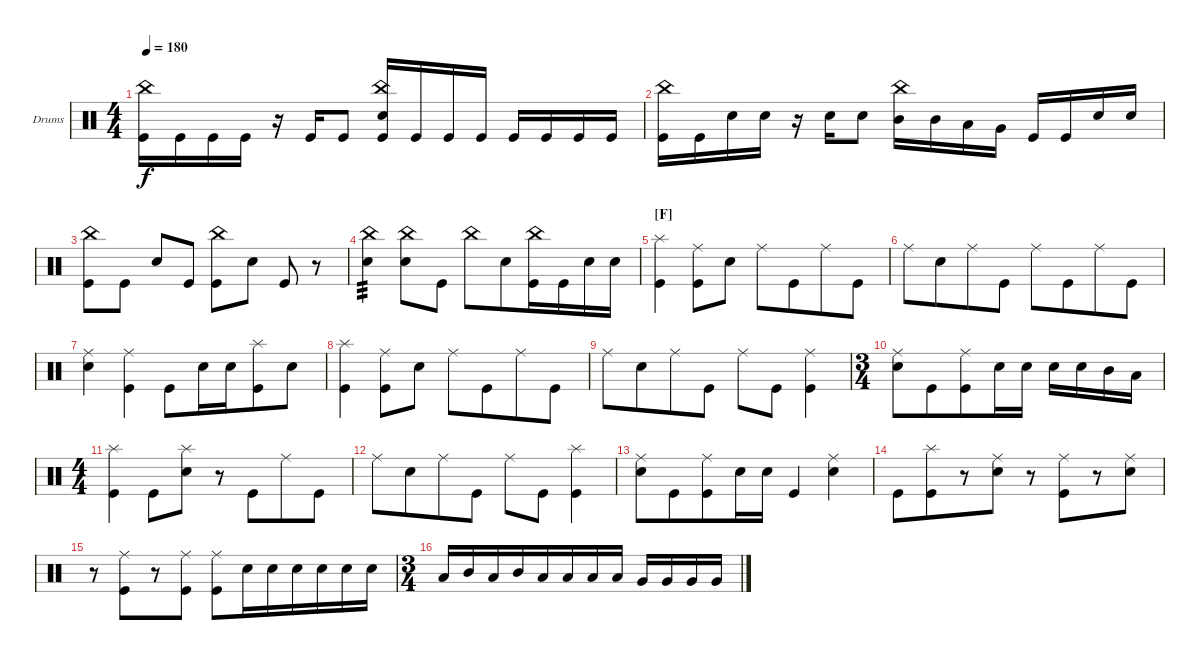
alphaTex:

\defaultSystemsLayout 4
\bracketExtendMode groupsimilarinstruments
\firstSystemTrackNameOrientation horizontal
\otherSystemsTrackNameOrientation horizontal
\track ("Drumkit" "Drums") {instrument percussion}
\staff {score}
\articulation defaults
\ts (4 4)
\tempo 180
\clef neutral
\ks c
("Kick (hit)" "China (hit)").16{dy f} "Kick (hit)".16 "Kick (hit)".16 "Kick (hit)".16 r.16 "Kick (hit)".16 "Kick (hit)".8 ("Kick (hit)" "China (hit)" "Snare (hit) 2").16 "Kick (hit)".16 "Kick (hit)".16 "Kick (hit)".16 "Kick (hit)".16 "Kick (hit)".16 "Kick (hit)".16 "Kick (hit)".16 |
("China (hit)" "Kick (hit)").16 "Kick (hit)".16 "Snare (hit) 2".16 "Snare (hit) 2".16 r.16 "Snare (hit) 2".16 "Snare (hit) 2".8 ("China (hit)" "Mid Tom (hit)").16 "Mid Tom (hit)".16 "Low Tom (hit)".16 "Very Low Tom (hit)".16 "Kick (hit)".16 "Kick (hit)".16 "Snare (hit) 2".16 "Snare (hit) 2".16 |
("Kick (hit)" "China (hit)").8 "Kick (hit)".8 "Snare (hit) 2".8 "Kick (hit)".8 ("Kick (hit)" "China (hit)").8 "Snare (hit) 2".8 "Kick (hit)".8 r.8 |
\beaming (8 4 4)
("Snare (hit) 2" "China (hit)").4{tp 3} ("Snare (hit) 2" "China (hit)").8 "Kick (hit)".8 "China (hit)".8 "Snare (hit) 2".8 ("Kick (hit)" "China (hit)").16 "Kick (hit)".16 "Snare (hit) 2".16 "Snare (hit) 2".16 |
\section ("F" "")
("Kick (hit)" "Splash (hit)").4 ("Kick (hit)" "Ride (middle)").8 "Snare (hit) 2".8 "Ride (middle)".8 "Kick (hit)".8 "Ride (middle)".8 "Kick (hit)".8 |
"Ride (middle)".8 "Snare (hit) 2".8 "Ride (middle)".8 "Kick (hit)".8 "Ride (middle)".8 "Kick (hit)".8 "Ride (middle)".8 "Kick (hit)".8 |
("Snare (hit) 2" "Ride (middle)").4 ("Kick (hit)" "Ride (middle)").4 "Kick (hit)".8 "Snare (hit) 2".16 "Snare (hit) 2".16 ("Kick (hit)" "Splash (hit)").8 "Snare (hit) 2".8 |
("Kick (hit)" "Splash (hit)").4 ("Kick (hit)" "Ride (middle)").8 "Snare (hit) 2".8 "Ride (middle)".8 "Kick (hit)".8 "Ride (middle)".8 "Kick (hit)".8 |
"Ride (middle)".8 "Snare (hit) 2".8 "Ride (middle)".8 "Kick (hit)".8 "Ride (middle)".8 "Kick (hit)".8 ("Kick (hit)" "Ride (middle)").4 |
\ts (3 4)
("Snare (hit) 2" "Ride (middle)").8 "Kick (hit)".8 ("Kick (hit)" "Ride (middle)").8 "Snare (hit) 2".16 "Snare (hit) 2".16 "Snare (hit) 2".16 "Snare (hit) 2".16 "Mid Tom (hit)".16 "Low Tom (hit)".16 |
\ts (4 4)
("Kick (hit)" "Splash (hit)").4 "Kick (hit)".8 ("Snare (hit) 2" "Splash (hit)").8 r.8 "Kick (hit)".8 "Ride (middle)".8 "Kick (hit)".8 |
"Ride (middle)".8 "Snare (hit) 2".8 "Ride (middle)".8 "Kick (hit)".8 "Ride (middle)".8 "Kick (hit)".8 ("Kick (hit)" "Splash (hit)").4 |
("Snare (hit) 2" "Ride (middle)").8 "Kick (hit)".8 ("Kick (hit)" "Ride (middle)").8 "Snare (hit) 2".16 "Snare (hit) 2".16 "Kick (hit)".4 ("Snare (hit) 2" "Ride (middle)").4 |
"Kick (hit)".8 ("Kick (hit)" "Splash (hit)").8 r.8 ("Snare (hit) 2" "Ride (middle)").8 r.8 ("Kick (hit)" "Ride (middle)").8 r.8 ("Snare (hit) 2" "Ride (middle)").8 |
r.8 ("Kick (hit)" "Ride (middle)").8 r.8 ("Kick (hit)" "Ride (middle)").8 ("Kick (hit)" "Ride (middle)").8 "Snare (hit) 2".16 "Snare (hit) 2".16 "Snare (hit) 2".16 "Snare (hit) 2".16 "Snare (hit) 2".16 "Snare (hit) 2".16 |
\ts (3 4)
"Low Tom (hit)".16 "Mid Tom (hit)".16 "Low Tom (hit)".16 "Mid Tom (hit)".16 "Low Tom (hit)".16 "Low Tom (hit)".16 "Low Tom (hit)".16 "Low Tom (hit)".16 "Very Low Tom (hit)".16 "Very Low Tom (hit)".16 "Very Low Tom (hit)".16 "Very Low Tom (hit)".16
